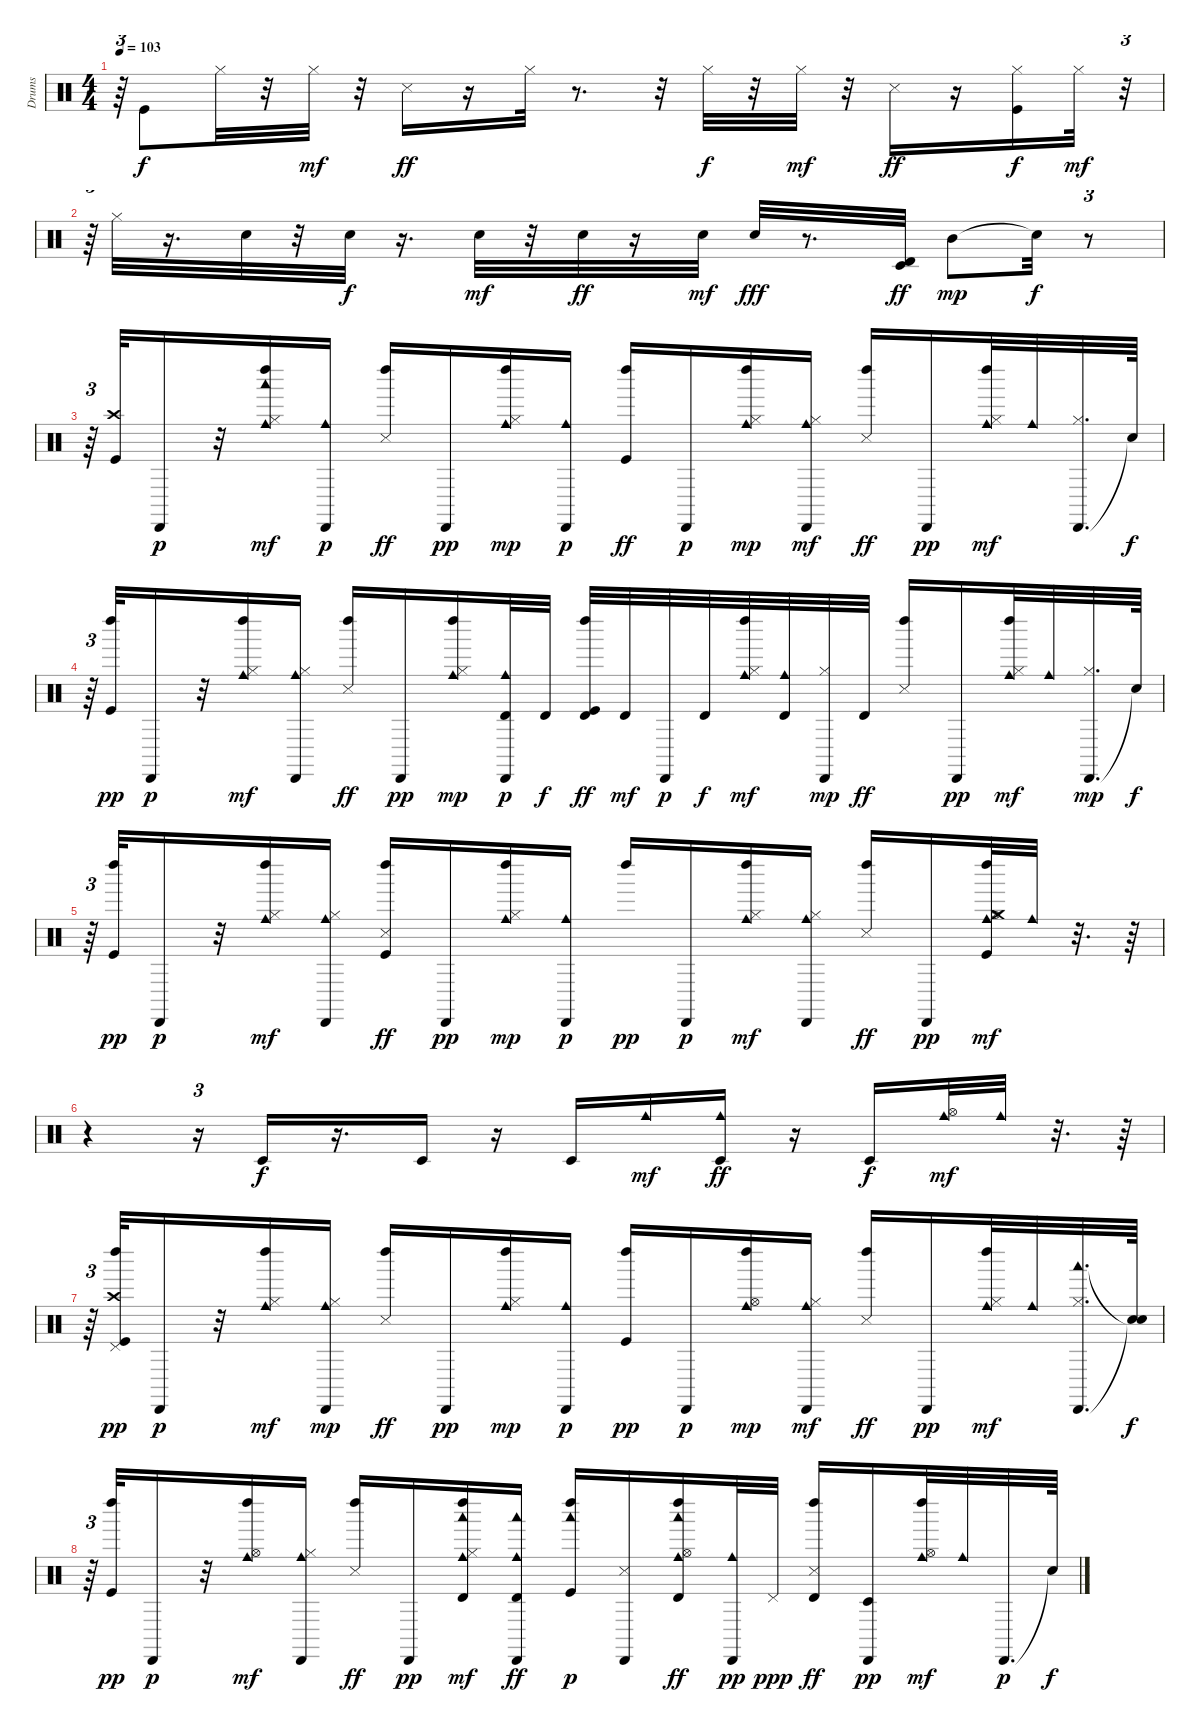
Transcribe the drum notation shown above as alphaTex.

\track ("Drums" "Drums") {instrument percussion}
\staff {score}
\articulation defaults
\ts (4 4)
\tempo 103
\clef neutral
\ks c
r.64{tu (3 2) dy mp} "Kick (hit)".8{dy f} "Hi-Hat (closed)".32 r.32 "Hi-Hat (closed)".32{dy mf} r.32 "Snare (side stick) 3".16{dy ff} r.16 "Hi-Hat (closed)".32 r.8{d} r.32 "Hi-Hat (closed)".32{dy f} r.32 "Hi-Hat (closed)".32{dy mf} r.32 "Snare (side stick) 3".16{dy ff} r.16 ("Kick (hit)" "Hi-Hat (closed)").16{dy f} "Hi-Hat (closed)".32{dy mf} r.32{tu (3 2)} |
r.64{tu (3 2)} "Hi-Hat (closed)".32 r.16{d} "Electric Snare (hit)".32 r.32 "Electric Snare (hit)".32{dy f} r.16{d} "Electric Snare (hit)".32{dy mf} r.32 "Electric Snare (hit)".32{dy ff} r.16 "Electric Snare (hit)".32{dy mf} "Electric Snare (hit)".32{dy fff} r.8{d} ("Timbale high (hit)" "Timbale low (hit)").32{dy ff} "Mid Tom (hit)".8{dy mp} "Snare (hit)"{t}.32{dy f} r.8{tu (3 2)} |
r.64{tu (3 2)} ("Crash high (hit)" "Kick (hit)").32 "Cabasa (hit)".16{dy p} r.32 ("Left Maraca (hit)" "Hi-Hat (closed)" "Cowbell medium (hit)" "Woodblock low (hit)").16{dy mf} ("Cowbell medium (hit)" "Cabasa (hit)").16{dy p} ("Left Maraca (hit)" "Snare (side stick) 3").16{dy ff} "Cabasa (hit)".16{dy pp} ("Left Maraca (hit)" "Hi-Hat (closed)" "Cowbell medium (hit)").16{dy mp} ("Cowbell medium (hit)" "Cabasa (hit)").16{dy p} ("Left Maraca (hit)" "Kick (hit)").16{dy ff} "Cabasa (hit)".16{dy p} ("Left Maraca (hit)" "Hi-Hat (closed)" "Cowbell medium (hit)").16{dy mp} ("Cowbell medium (hit)" "Cabasa (hit)" "Hi-Hat (closed)").16{dy mf} ("Left Maraca (hit)" "Snare (side stick) 3").16{dy ff} "Cabasa (hit)".16{dy pp} ("Left Maraca (hit)" "Hi-Hat (closed)" "Cowbell medium (hit)").32{dy mf} "Cowbell medium (hit)".32 ("Cabasa (hit)" "Hi-Hat (closed)").32{d} "Snare (hit)"{t}.64{dy f} |
r.64{tu (3 2)} ("Left Maraca (hit)" "Kick (hit)").32{dy pp} "Cabasa (hit)".16{dy p} r.32 ("Left Maraca (hit)" "Hi-Hat (closed)" "Cowbell medium (hit)").16{dy mf} ("Cowbell medium (hit)" "Cabasa (hit)" "Hi-Hat (closed)").16 ("Left Maraca (hit)" "Snare (side stick) 3").16{dy ff} "Cabasa (hit)".16{dy pp} ("Left Maraca (hit)" "Hi-Hat (closed)" "Cowbell medium (hit)").16{dy mp} ("Timbale high (hit)" "Cowbell medium (hit)" "Cabasa (hit)").32{dy p} "Timbale high (hit)".32{dy f} ("Timbale high (hit)" "Left Maraca (hit)" "Kick (hit)").32{dy ff} "Timbale high (hit)".32{dy mf} "Cabasa (hit)".32{dy p} "Timbale high (hit)".32{dy f} ("Left Maraca (hit)" "Hi-Hat (closed)" "Cowbell medium (hit)").32{dy mf} ("Timbale high (hit)" "Cowbell medium (hit)").32 ("Cabasa (hit)" "Hi-Hat (closed)").32{dy mp} "Timbale high (hit)".32{dy ff} ("Left Maraca (hit)" "Snare (side stick) 3").16 "Cabasa (hit)".16{dy pp} ("Left Maraca (hit)" "Hi-Hat (closed)" "Cowbell medium (hit)").32{dy mf} "Cowbell medium (hit)".32 ("Cabasa (hit)" "Hi-Hat (closed)").32{d dy mp} "Snare (hit)"{t}.64{dy f} |
r.64{tu (3 2)} ("Left Maraca (hit)" "Kick (hit)").32{dy pp} "Cabasa (hit)".16{dy p} r.32 ("Left Maraca (hit)" "Hi-Hat (closed)" "Cowbell medium (hit)").16{dy mf} ("Cowbell medium (hit)" "Cabasa (hit)" "Hi-Hat (closed)").16 ("Left Maraca (hit)" "Kick (hit)" "Snare (side stick) 3").16{dy ff} "Cabasa (hit)".16{dy pp} ("Left Maraca (hit)" "Hi-Hat (closed)" "Cowbell medium (hit)").16{dy mp} ("Cowbell medium (hit)" "Cabasa (hit)").16{dy p} "Left Maraca (hit)".16{dy pp} "Cabasa (hit)".16{dy p} ("Left Maraca (hit)" "Hi-Hat (closed)" "Cowbell medium (hit)").16{dy mf} ("Cowbell medium (hit)" "Cabasa (hit)" "Hi-Hat (closed)").16 ("Left Maraca (hit)" "Snare (side stick) 3").16{dy ff} "Cabasa (hit)".16{dy pp} ("Left Maraca (hit)" "Crash medium (hit)" "Hi-Hat (open)" "Kick (hit)" "Cowbell medium (hit)").32{dy mf} "Cowbell medium (hit)".32 r.32{d} r.64 |
r.4 r.16{tu (3 2)} "Timbale low (hit)".16{dy f} r.16{d} "Timbale low (hit)".16 r.16 "Timbale low (hit)".16 "Cowbell medium (hit)".16{dy mf} ("Cowbell medium (hit)" "Timbale low (hit)").16{dy ff} r.16 "Timbale low (hit)".16{dy f} ("Hi-Hat (open)" "Cowbell medium (hit)").32{dy mf} "Cowbell medium (hit)".32 r.32{d} r.64 |
r.64{tu (3 2)} ("Left Maraca (hit)" "Pedal Hi-Hat (hit)" "Crash high (hit)" "Kick (hit)").32{dy pp} "Cabasa (hit)".16{dy p} r.32 ("Left Maraca (hit)" "Hi-Hat (closed)" "Cowbell medium (hit)").16{dy mf} ("Cowbell medium (hit)" "Cabasa (hit)" "Hi-Hat (closed)").16{dy mp} ("Left Maraca (hit)" "Snare (side stick) 3").16{dy ff} "Cabasa (hit)".16{dy pp} ("Left Maraca (hit)" "Hi-Hat (closed)" "Cowbell medium (hit)").16{dy mp} ("Cowbell medium (hit)" "Cabasa (hit)").16{dy p} ("Left Maraca (hit)" "Kick (hit)").16{dy pp} "Cabasa (hit)".16{dy p} ("Left Maraca (hit)" "Hi-Hat (open)" "Cowbell medium (hit)").16{dy mp} ("Cowbell medium (hit)" "Cabasa (hit)" "Hi-Hat (closed)").16{dy mf} ("Left Maraca (hit)" "Snare (side stick) 3").16{dy ff} "Cabasa (hit)".16{dy pp} ("Left Maraca (hit)" "Hi-Hat (closed)" "Cowbell medium (hit)").32{dy mf} "Cowbell medium (hit)".32 ("Woodblock low (hit)" "Cabasa (hit)" "Hi-Hat (closed)").32{d} ("Snare (hit)"{t} "Snare (hit)"{t}).64{dy f} |
r.64{tu (3 2)} ("Left Maraca (hit)" "Kick (hit)").32{dy pp} "Cabasa (hit)".16{dy p} r.32 ("Left Maraca (hit)" "Hi-Hat (open)" "Cowbell medium (hit)").16{dy mf} ("Cowbell medium (hit)" "Cabasa (hit)" "Hi-Hat (closed)").16 ("Left Maraca (hit)" "Snare (side stick) 3").16{dy ff} "Cabasa (hit)".16{dy pp} ("Left Maraca (hit)" "Hi-Hat (closed)" "Woodblock low (hit)" "Cowbell medium (hit)" "Timbale high (hit)").16{dy mf} ("Cowbell medium (hit)" "Cabasa (hit)" "Woodblock low (hit)" "Timbale high (hit)").16{dy ff} ("Left Maraca (hit)" "Kick (hit)" "Woodblock low (hit)").16{dy p} ("Cabasa (hit)" "Snare (side stick) 3").16 ("Left Maraca (hit)" "Hi-Hat (open)" "Cowbell medium (hit)" "Woodblock low (hit)" "Timbale high (hit)").16{dy ff} ("Cowbell medium (hit)" "Cabasa (hit)").32{dy pp} "Pedal Hi-Hat (hit)".32{dy ppp} ("Left Maraca (hit)" "Snare (side stick) 3" "Timbale high (hit)").16{dy ff} ("Timbale low (hit)" "Cabasa (hit)").16{dy pp} ("Left Maraca (hit)" "Hi-Hat (open)" "Cowbell medium (hit)").32{dy mf} "Cowbell medium (hit)".32 "Cabasa (hit)".32{d dy p} "Snare (hit)"{t}.64{dy f}
